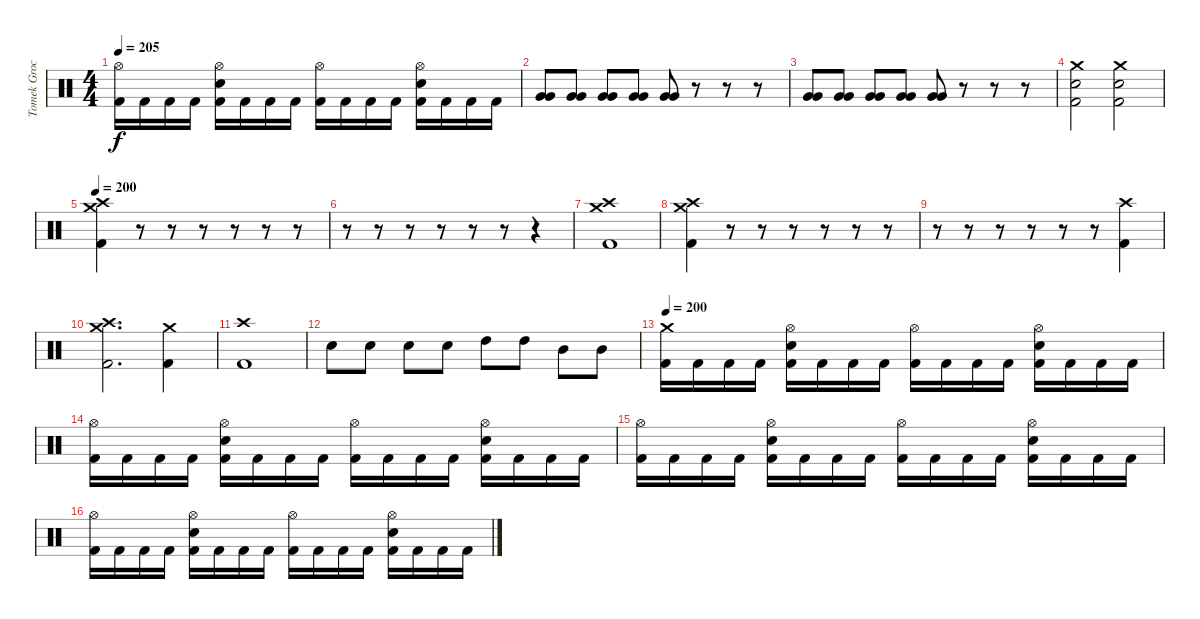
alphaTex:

\track ("Tomek Grochowski" "Tomek Groc") {instrument percussion}
\staff {score}
\articulation defaults
\ts (4 4)
\tempo 205
\clef neutral
\ks c
("Hi-Hat (open)" "Kick (hit) 2").16{dy f} "Kick (hit) 2".16 "Kick (hit) 2".16 "Kick (hit) 2".16 ("Hi-Hat (open)" "Electric Snare (hit)" "Kick (hit) 2").16 "Kick (hit) 2".16 "Kick (hit) 2".16 "Kick (hit) 2".16 ("Hi-Hat (open)" "Kick (hit) 2").16 "Kick (hit) 2".16 "Kick (hit) 2".16 "Kick (hit) 2".16 ("Hi-Hat (open)" "Electric Snare (hit)" "Kick (hit) 2").16 "Kick (hit) 2".16 "Kick (hit) 2".16 "Kick (hit) 2".16 |
("Very Low Tom (hit)" "Very Low Tom (hit)").8 ("Very Low Tom (hit)" "Very Low Tom (hit)").8 ("Very Low Tom (hit)" "Very Low Tom (hit)").8 ("Very Low Tom (hit)" "Very Low Tom (hit)").8 ("Very Low Tom (hit)" "Very Low Tom (hit)").8 r.8 r.8 r.8 |
("Very Low Tom (hit)" "Very Low Tom (hit)").8 ("Very Low Tom (hit)" "Very Low Tom (hit)").8 ("Very Low Tom (hit)" "Very Low Tom (hit)").8 ("Very Low Tom (hit)" "Very Low Tom (hit)").8 ("Very Low Tom (hit)" "Very Low Tom (hit)").8 r.8 r.8 r.8 |
("Crash medium (hit)" "Electric Snare (hit)" "Kick (hit) 2").2 ("Crash medium (hit)" "Electric Snare (hit)" "Kick (hit) 2").2 |
\tempo 200
("Crash medium (hit)" "Crash high (hit)" "Kick (hit) 2").4 r.8 r.8 r.8 r.8 r.8 r.8 |
r.8 r.8 r.8 r.8 r.8 r.8 r.4 |
("Crash high (hit)" "Crash medium (hit)" "Kick (hit) 2").1 |
("Crash medium (hit)" "Crash high (hit)" "Kick (hit) 2").4 r.8 r.8 r.8 r.8 r.8 r.8 |
r.8 r.8 r.8 r.8 r.8 r.8 ("Crash high (hit)" "Kick (hit) 2").4 |
("Crash high (hit)" "Crash medium (hit)" "Kick (hit) 2").2{d} ("Crash medium (hit)" "Kick (hit) 2").4 |
("Crash high (hit)" "Kick (hit) 2").1 |
"Electric Snare (hit)".8 "Electric Snare (hit)".8 "Electric Snare (hit)".8 "Electric Snare (hit)".8 "High Tom (hit)".8 "High Tom (hit)".8 "Mid Tom (hit)".8 "Mid Tom (hit)".8 |
\tempo 200
("Crash medium (hit)" "Kick (hit) 2").16 "Kick (hit) 2".16 "Kick (hit) 2".16 "Kick (hit) 2".16 ("Hi-Hat (open)" "Electric Snare (hit)" "Kick (hit) 2").16 "Kick (hit) 2".16 "Kick (hit) 2".16 "Kick (hit) 2".16 ("Hi-Hat (open)" "Kick (hit) 2").16 "Kick (hit) 2".16 "Kick (hit) 2".16 "Kick (hit) 2".16 ("Hi-Hat (open)" "Electric Snare (hit)" "Kick (hit) 2").16 "Kick (hit) 2".16 "Kick (hit) 2".16 "Kick (hit) 2".16 |
("Hi-Hat (open)" "Kick (hit) 2").16 "Kick (hit) 2".16 "Kick (hit) 2".16 "Kick (hit) 2".16 ("Hi-Hat (open)" "Electric Snare (hit)" "Kick (hit) 2").16 "Kick (hit) 2".16 "Kick (hit) 2".16 "Kick (hit) 2".16 ("Hi-Hat (open)" "Kick (hit) 2").16 "Kick (hit) 2".16 "Kick (hit) 2".16 "Kick (hit) 2".16 ("Hi-Hat (open)" "Electric Snare (hit)" "Kick (hit) 2").16 "Kick (hit) 2".16 "Kick (hit) 2".16 "Kick (hit) 2".16 |
("Hi-Hat (open)" "Kick (hit) 2").16 "Kick (hit) 2".16 "Kick (hit) 2".16 "Kick (hit) 2".16 ("Hi-Hat (open)" "Electric Snare (hit)" "Kick (hit) 2").16 "Kick (hit) 2".16 "Kick (hit) 2".16 "Kick (hit) 2".16 ("Hi-Hat (open)" "Kick (hit) 2").16 "Kick (hit) 2".16 "Kick (hit) 2".16 "Kick (hit) 2".16 ("Hi-Hat (open)" "Electric Snare (hit)" "Kick (hit) 2").16 "Kick (hit) 2".16 "Kick (hit) 2".16 "Kick (hit) 2".16 |
("Hi-Hat (open)" "Kick (hit) 2").16 "Kick (hit) 2".16 "Kick (hit) 2".16 "Kick (hit) 2".16 ("Hi-Hat (open)" "Electric Snare (hit)" "Kick (hit) 2").16 "Kick (hit) 2".16 "Kick (hit) 2".16 "Kick (hit) 2".16 ("Hi-Hat (open)" "Kick (hit) 2").16 "Kick (hit) 2".16 "Kick (hit) 2".16 "Kick (hit) 2".16 ("Hi-Hat (open)" "Electric Snare (hit)" "Kick (hit) 2").16 "Kick (hit) 2".16 "Kick (hit) 2".16 "Kick (hit) 2".16
